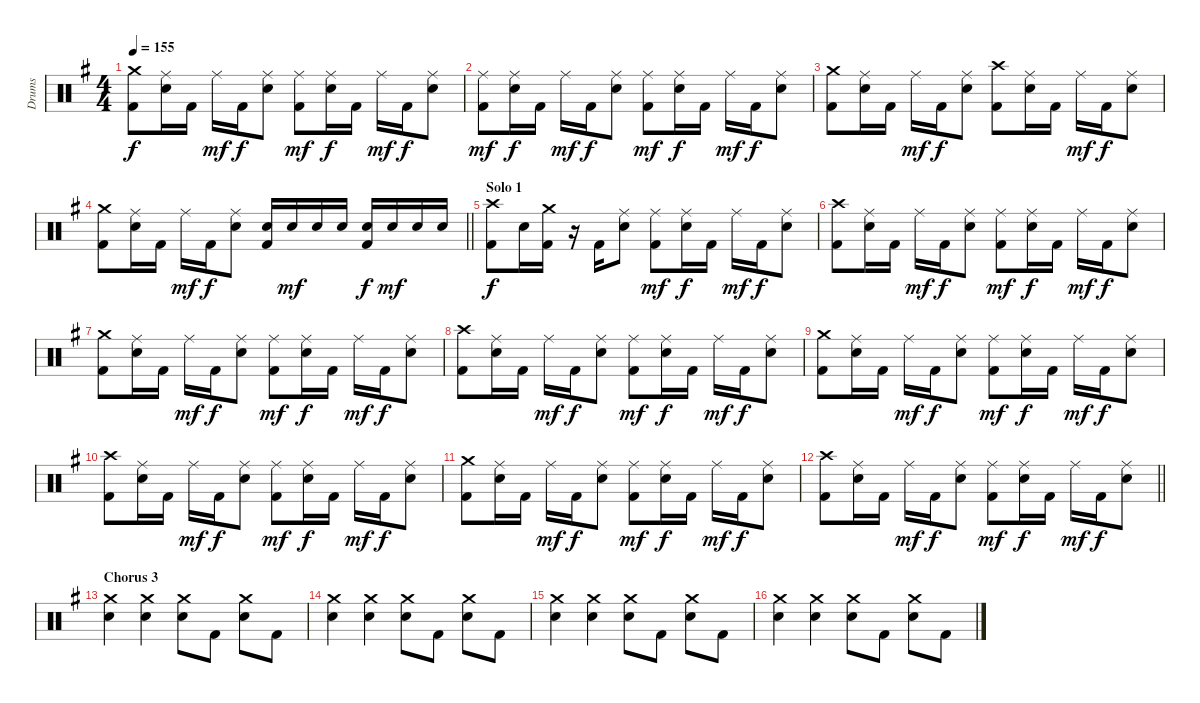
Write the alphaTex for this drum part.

\track ("Drums" "Drums") {instrument percussion}
\staff {score}
\articulation defaults
\ts (4 4)
\tempo 155
\clef neutral
\ks g
("Crash medium (hit)" "Kick (hit) 2").8{dy f} ("Ride (middle)" "Electric Snare (hit)").16 "Kick (hit) 2".16 "Ride (middle)".16{dy mf} "Kick (hit) 2".16{dy f} ("Ride (middle)" "Electric Snare (hit)").8 ("Ride (middle)" "Kick (hit) 2").8{dy mf} ("Ride (middle)" "Electric Snare (hit)").16{dy f} "Kick (hit) 2".16 "Ride (middle)".16{dy mf} "Kick (hit) 2".16{dy f} ("Ride (middle)" "Electric Snare (hit)").8 |
("Ride (middle)" "Kick (hit) 2").8{dy mf} ("Ride (middle)" "Electric Snare (hit)").16{dy f} "Kick (hit) 2".16 "Ride (middle)".16{dy mf} "Kick (hit) 2".16{dy f} ("Ride (middle)" "Electric Snare (hit)").8 ("Ride (middle)" "Kick (hit) 2").8{dy mf} ("Ride (middle)" "Electric Snare (hit)").16{dy f} "Kick (hit) 2".16 "Ride (middle)".16{dy mf} "Kick (hit) 2".16{dy f} ("Ride (middle)" "Electric Snare (hit)").8 |
("Crash medium (hit)" "Kick (hit) 2").8 ("Ride (middle)" "Electric Snare (hit)").16 "Kick (hit) 2".16 "Ride (middle)".16{dy mf} "Kick (hit) 2".16{dy f} ("Ride (middle)" "Electric Snare (hit)").8 ("Crash high (hit)" "Kick (hit) 2").8 ("Ride (middle)" "Electric Snare (hit)").16 "Kick (hit) 2".16 "Ride (middle)".16{dy mf} "Kick (hit) 2".16{dy f} ("Ride (middle)" "Electric Snare (hit)").8 |
\barLineRight lightlight
("Crash medium (hit)" "Kick (hit) 2").8 ("Ride (middle)" "Electric Snare (hit)").16 "Kick (hit) 2".16 "Ride (middle)".16{dy mf} "Kick (hit) 2".16{dy f} ("Ride (middle)" "Electric Snare (hit)").8 ("Electric Snare (hit)" "Kick (hit) 2").16 "Electric Snare (hit)".16{dy mf} "Electric Snare (hit)".16 "Electric Snare (hit)".16 ("Electric Snare (hit)" "Kick (hit) 2").16{dy f} "Electric Snare (hit)".16{dy mf} "Electric Snare (hit)".16 "Electric Snare (hit)".16 |
\section ("" "Solo 1")
("Crash high (hit)" "Kick (hit) 2").8{dy f} "Electric Snare (hit)".16 ("Crash medium (hit)" "Kick (hit) 2").16 r.16 "Kick (hit) 2".16 ("Ride (middle)" "Electric Snare (hit)").8 ("Ride (middle)" "Kick (hit) 2").8{dy mf} ("Ride (middle)" "Electric Snare (hit)").16{dy f} "Kick (hit) 2".16 "Ride (middle)".16{dy mf} "Kick (hit) 2".16{dy f} ("Ride (middle)" "Electric Snare (hit)").8 |
("Crash high (hit)" "Kick (hit) 2").8 ("Ride (middle)" "Electric Snare (hit)").16 "Kick (hit) 2".16 "Ride (middle)".16{dy mf} "Kick (hit) 2".16{dy f} ("Ride (middle)" "Electric Snare (hit)").8 ("Ride (middle)" "Kick (hit) 2").8{dy mf} ("Ride (middle)" "Electric Snare (hit)").16{dy f} "Kick (hit) 2".16 "Ride (middle)".16{dy mf} "Kick (hit) 2".16{dy f} ("Ride (middle)" "Electric Snare (hit)").8 |
("Crash medium (hit)" "Kick (hit) 2").8 ("Ride (middle)" "Electric Snare (hit)").16 "Kick (hit) 2".16 "Ride (middle)".16{dy mf} "Kick (hit) 2".16{dy f} ("Ride (middle)" "Electric Snare (hit)").8 ("Ride (middle)" "Kick (hit) 2").8{dy mf} ("Ride (middle)" "Electric Snare (hit)").16{dy f} "Kick (hit) 2".16 "Ride (middle)".16{dy mf} "Kick (hit) 2".16{dy f} ("Ride (middle)" "Electric Snare (hit)").8 |
("Crash high (hit)" "Kick (hit) 2").8 ("Ride (middle)" "Electric Snare (hit)").16 "Kick (hit) 2".16 "Ride (middle)".16{dy mf} "Kick (hit) 2".16{dy f} ("Ride (middle)" "Electric Snare (hit)").8 ("Ride (middle)" "Kick (hit) 2").8{dy mf} ("Ride (middle)" "Electric Snare (hit)").16{dy f} "Kick (hit) 2".16 "Ride (middle)".16{dy mf} "Kick (hit) 2".16{dy f} ("Ride (middle)" "Electric Snare (hit)").8 |
("Crash medium (hit)" "Kick (hit) 2").8 ("Ride (middle)" "Electric Snare (hit)").16 "Kick (hit) 2".16 "Ride (middle)".16{dy mf} "Kick (hit) 2".16{dy f} ("Ride (middle)" "Electric Snare (hit)").8 ("Ride (middle)" "Kick (hit) 2").8{dy mf} ("Ride (middle)" "Electric Snare (hit)").16{dy f} "Kick (hit) 2".16 "Ride (middle)".16{dy mf} "Kick (hit) 2".16{dy f} ("Ride (middle)" "Electric Snare (hit)").8 |
("Crash high (hit)" "Kick (hit) 2").8 ("Ride (middle)" "Electric Snare (hit)").16 "Kick (hit) 2".16 "Ride (middle)".16{dy mf} "Kick (hit) 2".16{dy f} ("Ride (middle)" "Electric Snare (hit)").8 ("Ride (middle)" "Kick (hit) 2").8{dy mf} ("Ride (middle)" "Electric Snare (hit)").16{dy f} "Kick (hit) 2".16 "Ride (middle)".16{dy mf} "Kick (hit) 2".16{dy f} ("Ride (middle)" "Electric Snare (hit)").8 |
("Crash medium (hit)" "Kick (hit) 2").8 ("Ride (middle)" "Electric Snare (hit)").16 "Kick (hit) 2".16 "Ride (middle)".16{dy mf} "Kick (hit) 2".16{dy f} ("Ride (middle)" "Electric Snare (hit)").8 ("Ride (middle)" "Kick (hit) 2").8{dy mf} ("Ride (middle)" "Electric Snare (hit)").16{dy f} "Kick (hit) 2".16 "Ride (middle)".16{dy mf} "Kick (hit) 2".16{dy f} ("Ride (middle)" "Electric Snare (hit)").8 |
\barLineRight lightlight
("Crash high (hit)" "Kick (hit) 2").8 ("Ride (middle)" "Electric Snare (hit)").16 "Kick (hit) 2".16 "Ride (middle)".16{dy mf} "Kick (hit) 2".16{dy f} ("Ride (middle)" "Electric Snare (hit)").8 ("Ride (middle)" "Kick (hit) 2").8{dy mf} ("Ride (middle)" "Electric Snare (hit)").16{dy f} "Kick (hit) 2".16 "Ride (middle)".16{dy mf} "Kick (hit) 2".16{dy f} ("Ride (middle)" "Electric Snare (hit)").8 |
\section ("" "Chorus 3")
("Crash medium (hit)" "Electric Snare (hit)").4 ("Crash medium (hit)" "Electric Snare (hit)").4 ("Crash medium (hit)" "Electric Snare (hit)").8 "Kick (hit) 2".8 ("Crash medium (hit)" "Electric Snare (hit)").8 "Kick (hit) 2".8 |
("Crash medium (hit)" "Electric Snare (hit)").4 ("Crash medium (hit)" "Electric Snare (hit)").4 ("Crash medium (hit)" "Electric Snare (hit)").8 "Kick (hit) 2".8 ("Crash medium (hit)" "Electric Snare (hit)").8 "Kick (hit) 2".8 |
("Crash medium (hit)" "Electric Snare (hit)").4 ("Crash medium (hit)" "Electric Snare (hit)").4 ("Crash medium (hit)" "Electric Snare (hit)").8 "Kick (hit) 2".8 ("Crash medium (hit)" "Electric Snare (hit)").8 "Kick (hit) 2".8 |
("Crash medium (hit)" "Electric Snare (hit)").4 ("Crash medium (hit)" "Electric Snare (hit)").4 ("Crash medium (hit)" "Electric Snare (hit)").8 "Kick (hit) 2".8 ("Crash medium (hit)" "Electric Snare (hit)").8 "Kick (hit) 2".8
